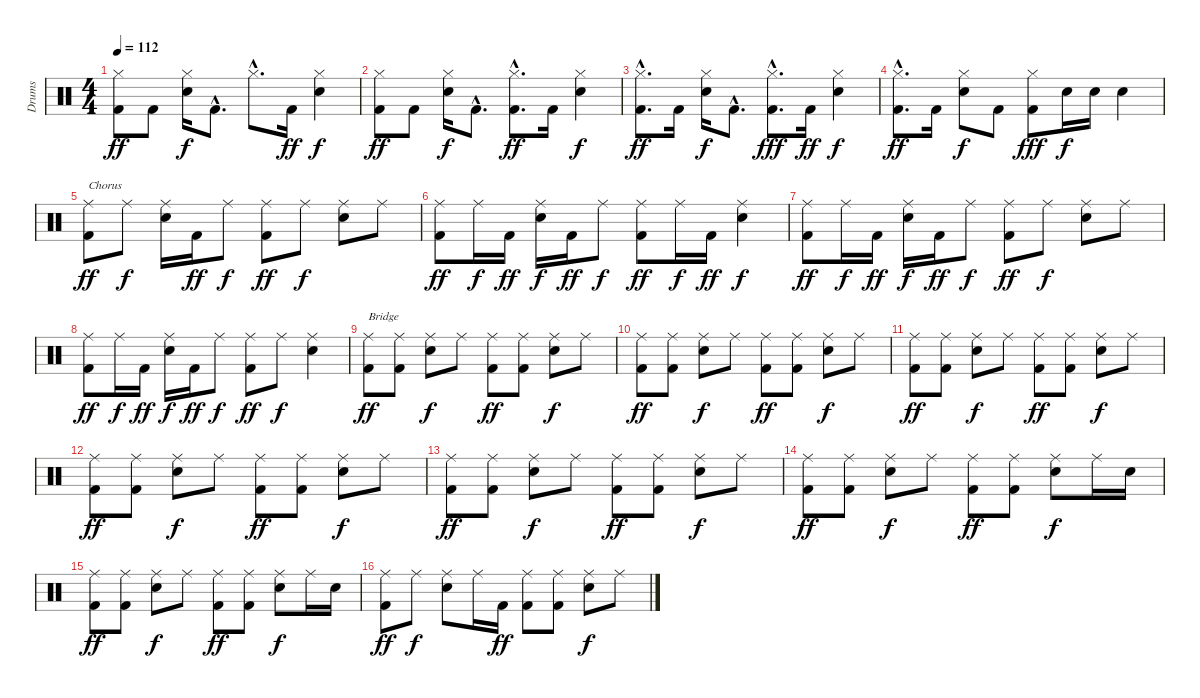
\track ("Drums" "Drums") {instrument percussion}
\staff {score}
\articulation defaults
\ts (4 4)
\tempo 112
\clef neutral
\ks c
("Hi-Hat (closed)" "Kick (hit) 2").8{dy ff} "Kick (hit) 2".8 ("Hi-Hat (closed)" "Snare (hit) 2").16{dy f} "Kick (hit) 2"{hac}.8{d} "Hi-Hat (closed)"{hac}.8{d} "Kick (hit) 2".16{dy ff} ("Hi-Hat (closed)" "Snare (hit) 2").4{dy f} |
("Hi-Hat (closed)" "Kick (hit) 2").8{dy ff} "Kick (hit) 2".8 ("Hi-Hat (closed)" "Snare (hit) 2").16{dy f} "Kick (hit) 2"{hac}.8{d} ("Hi-Hat (closed)"{hac} "Kick (hit) 2"{hac}).8{d dy ff} "Kick (hit) 2".16 ("Hi-Hat (closed)" "Snare (hit) 2").4{dy f} |
("Hi-Hat (closed)"{hac} "Kick (hit) 2"{hac}).8{d dy ff} "Kick (hit) 2".16 ("Hi-Hat (closed)" "Snare (hit) 2").16{dy f} "Kick (hit) 2"{hac}.8{d} ("Hi-Hat (closed)"{hac} "Kick (hit) 2"{hac}).8{d dy fff} "Kick (hit) 2".16{dy ff} ("Hi-Hat (closed)" "Snare (hit) 2").4{dy f} |
("Hi-Hat (closed)"{hac} "Kick (hit) 2"{hac}).8{d dy ff} "Kick (hit) 2".16 ("Hi-Hat (closed)" "Snare (hit) 2").8{dy f} "Kick (hit) 2".8 ("Hi-Hat (closed)" "Kick (hit) 2").8{dy fff} "Snare (hit) 2".16{dy f} "Snare (hit) 2".16 "Snare (hit) 2".4 |
("Ride (middle)" "Kick (hit) 2").8{txt "Chorus" dy ff} "Ride (middle)".8{dy f} ("Ride (middle)" "Snare (hit) 2").16 "Kick (hit) 2".16{dy ff} "Ride (middle)".8{dy f} ("Ride (middle)" "Kick (hit) 2").8{dy ff} "Ride (middle)".8{dy f} ("Ride (middle)" "Snare (hit) 2").8 "Ride (middle)".8 |
("Ride (middle)" "Kick (hit) 2").8{dy ff} "Ride (middle)".16{dy f} "Kick (hit) 2".16{dy ff} ("Ride (middle)" "Snare (hit) 2").16{dy f} "Kick (hit) 2".16{dy ff} "Ride (middle)".8{dy f} ("Ride (middle)" "Kick (hit) 2").8{dy ff} "Ride (middle)".16{dy f} "Kick (hit) 2".16{dy ff} ("Ride (middle)" "Snare (hit) 2").4{dy f} |
("Ride (middle)" "Kick (hit) 2").8{dy ff} "Ride (middle)".16{dy f} "Kick (hit) 2".16{dy ff} ("Ride (middle)" "Snare (hit) 2").16{dy f} "Kick (hit) 2".16{dy ff} "Ride (middle)".8{dy f} ("Ride (middle)" "Kick (hit) 2").8{dy ff} "Ride (middle)".8{dy f} ("Ride (middle)" "Snare (hit) 2").8 "Ride (middle)".8 |
("Ride (middle)" "Kick (hit) 2").8{dy ff} "Ride (middle)".16{dy f} "Kick (hit) 2".16{dy ff} ("Ride (middle)" "Snare (hit) 2").16{dy f} "Kick (hit) 2".16{dy ff} "Ride (middle)".8{dy f} ("Ride (middle)" "Kick (hit) 2").8{dy ff} "Ride (middle)".8{dy f} ("Ride (middle)" "Snare (hit) 2").4 |
("Ride (middle)" "Kick (hit) 2").8{txt "Bridge" dy ff} ("Ride (middle)" "Kick (hit) 2").8 ("Ride (middle)" "Snare (hit) 2").8{dy f} "Ride (middle)".8 ("Ride (middle)" "Kick (hit) 2").8{dy ff} ("Ride (middle)" "Kick (hit) 2").8 ("Ride (middle)" "Snare (hit) 2").8{dy f} "Ride (middle)".8 |
("Ride (middle)" "Kick (hit) 2").8{dy ff} ("Ride (middle)" "Kick (hit) 2").8 ("Ride (middle)" "Snare (hit) 2").8{dy f} "Ride (middle)".8 ("Ride (middle)" "Kick (hit) 2").8{dy ff} ("Ride (middle)" "Kick (hit) 2").8 ("Ride (middle)" "Snare (hit) 2").8{dy f} "Ride (middle)".8 |
("Ride (middle)" "Kick (hit) 2").8{dy ff} ("Ride (middle)" "Kick (hit) 2").8 ("Ride (middle)" "Snare (hit) 2").8{dy f} "Ride (middle)".8 ("Ride (middle)" "Kick (hit) 2").8{dy ff} ("Ride (middle)" "Kick (hit) 2").8 ("Ride (middle)" "Snare (hit) 2").8{dy f} "Ride (middle)".8 |
("Ride (middle)" "Kick (hit) 2").8{dy ff} ("Ride (middle)" "Kick (hit) 2").8 ("Ride (middle)" "Snare (hit) 2").8{dy f} "Ride (middle)".8 ("Ride (middle)" "Kick (hit) 2").8{dy ff} ("Ride (middle)" "Kick (hit) 2").8 ("Ride (middle)" "Snare (hit) 2").8{dy f} "Ride (middle)".8 |
("Ride (middle)" "Kick (hit) 2").8{dy ff} ("Ride (middle)" "Kick (hit) 2").8 ("Ride (middle)" "Snare (hit) 2").8{dy f} "Ride (middle)".8 ("Ride (middle)" "Kick (hit) 2").8{dy ff} ("Ride (middle)" "Kick (hit) 2").8 ("Ride (middle)" "Snare (hit) 2").8{dy f} "Ride (middle)".8 |
("Ride (middle)" "Kick (hit) 2").8{dy ff} ("Ride (middle)" "Kick (hit) 2").8 ("Ride (middle)" "Snare (hit) 2").8{dy f} "Ride (middle)".8 ("Ride (middle)" "Kick (hit) 2").8{dy ff} ("Ride (middle)" "Kick (hit) 2").8 ("Ride (middle)" "Snare (hit) 2").8{dy f} "Ride (middle)".16 "Snare (hit) 2".16 |
("Ride (middle)" "Kick (hit) 2").8{dy ff} ("Ride (middle)" "Kick (hit) 2").8 ("Ride (middle)" "Snare (hit) 2").8{dy f} "Ride (middle)".8 ("Ride (middle)" "Kick (hit) 2").8{dy ff} ("Ride (middle)" "Kick (hit) 2").8 ("Ride (middle)" "Snare (hit) 2").8{dy f} "Ride (middle)".16 "Snare (hit) 2".16 |
("Ride (middle)" "Kick (hit) 2").8{dy ff} "Ride (middle)".8{dy f} ("Ride (middle)" "Snare (hit) 2").8 "Ride (middle)".16 "Kick (hit) 2".16{dy ff} ("Ride (middle)" "Kick (hit) 2").8 ("Ride (middle)" "Kick (hit) 2").8 ("Ride (middle)" "Snare (hit) 2").8{dy f} "Ride (middle)".8
